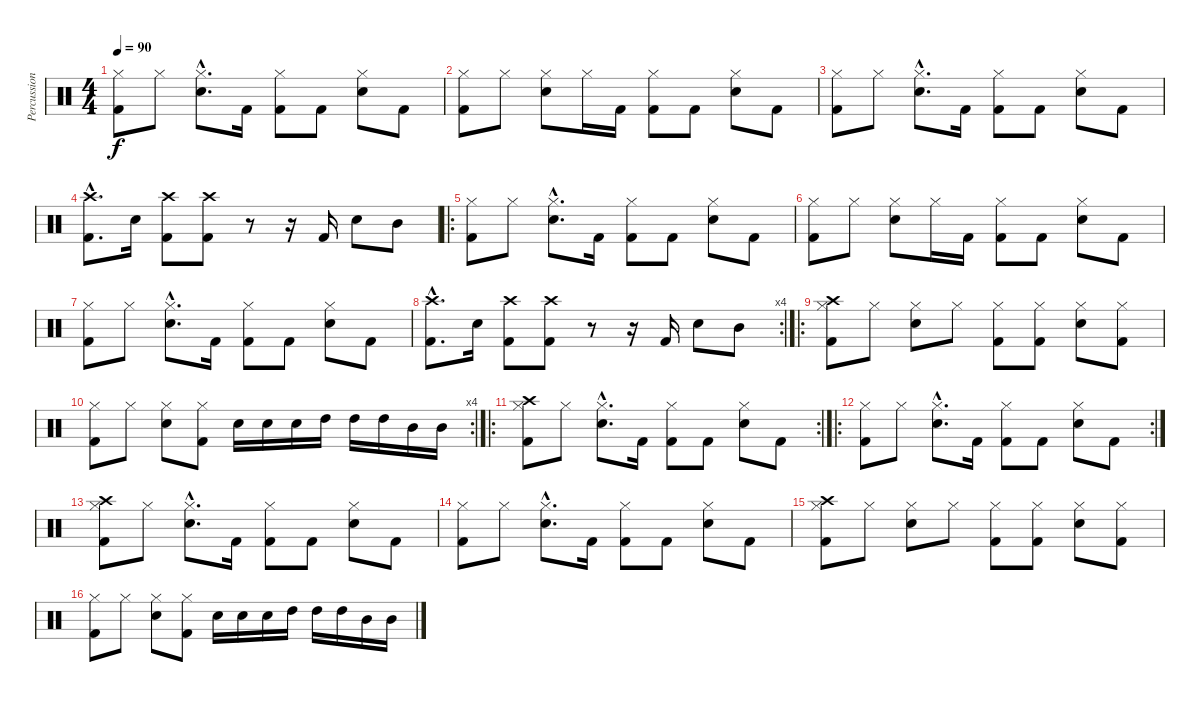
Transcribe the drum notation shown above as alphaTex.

\track ("Percussions" "Percussion") {instrument percussion}
\staff {score}
\articulation defaults
\ts (4 4)
\tempo 90
\clef neutral
\ks c
("Hi-Hat (closed)" "Kick (hit) 2").8{dy f} "Hi-Hat (closed)".8 ("Hi-Hat (closed)"{hac} "Snare (hit) 2"{hac}).8{d} "Kick (hit) 2".16 ("Hi-Hat (closed)" "Kick (hit) 2").8 "Kick (hit) 2".8 ("Hi-Hat (closed)" "Snare (hit) 2").8 "Kick (hit) 2".8 |
("Hi-Hat (closed)" "Kick (hit) 2").8 "Hi-Hat (closed)".8 ("Hi-Hat (closed)" "Snare (hit) 2").8 "Hi-Hat (closed)".16 "Kick (hit) 2".16 ("Hi-Hat (closed)" "Kick (hit) 2").8 "Kick (hit) 2".8 ("Hi-Hat (closed)" "Snare (hit) 2").8 "Kick (hit) 2".8 |
("Hi-Hat (closed)" "Kick (hit) 2").8 "Hi-Hat (closed)".8 ("Hi-Hat (closed)"{hac} "Snare (hit) 2"{hac}).8{d} "Kick (hit) 2".16 ("Hi-Hat (closed)" "Kick (hit) 2").8 "Kick (hit) 2".8 ("Hi-Hat (closed)" "Snare (hit) 2").8 "Kick (hit) 2".8 |
("Crash high (hit)"{hac} "Kick (hit) 2"{hac}).8{d} "Snare (hit) 2".16 ("Crash high (hit)" "Kick (hit) 2").8 ("Crash high (hit)" "Kick (hit) 2").8 r.8 r.16 "Kick (hit) 2".16 "Snare (hit) 2".8 "Mid Tom (hit)".8 |
\ro
("Hi-Hat (closed)" "Kick (hit) 2").8 "Hi-Hat (closed)".8 ("Hi-Hat (closed)"{hac} "Snare (hit) 2"{hac}).8{d} "Kick (hit) 2".16 ("Hi-Hat (closed)" "Kick (hit) 2").8 "Kick (hit) 2".8 ("Hi-Hat (closed)" "Snare (hit) 2").8 "Kick (hit) 2".8 |
("Hi-Hat (closed)" "Kick (hit) 2").8 "Hi-Hat (closed)".8 ("Hi-Hat (closed)" "Snare (hit) 2").8 "Hi-Hat (closed)".16 "Kick (hit) 2".16 ("Hi-Hat (closed)" "Kick (hit) 2").8 "Kick (hit) 2".8 ("Hi-Hat (closed)" "Snare (hit) 2").8 "Kick (hit) 2".8 |
("Hi-Hat (closed)" "Kick (hit) 2").8 "Hi-Hat (closed)".8 ("Hi-Hat (closed)"{hac} "Snare (hit) 2"{hac}).8{d} "Kick (hit) 2".16 ("Hi-Hat (closed)" "Kick (hit) 2").8 "Kick (hit) 2".8 ("Hi-Hat (closed)" "Snare (hit) 2").8 "Kick (hit) 2".8 |
\rc 4
("Crash high (hit)"{hac} "Kick (hit) 2"{hac}).8{d} "Snare (hit) 2".16 ("Crash high (hit)" "Kick (hit) 2").8 ("Crash high (hit)" "Kick (hit) 2").8 r.8 r.16 "Kick (hit) 2".16 "Snare (hit) 2".8 "Mid Tom (hit)".8 |
\ro
("Crash high (hit)" "Hi-Hat (closed)" "Kick (hit) 2").8 "Hi-Hat (closed)".8 ("Hi-Hat (closed)" "Snare (hit) 2").8 "Hi-Hat (closed)".8 ("Hi-Hat (closed)" "Kick (hit) 2").8 ("Hi-Hat (closed)" "Kick (hit) 2").8 ("Hi-Hat (closed)" "Snare (hit) 2").8 ("Hi-Hat (closed)" "Kick (hit) 2").8 |
\rc 4
("Hi-Hat (closed)" "Kick (hit) 2").8 "Hi-Hat (closed)".8 ("Hi-Hat (closed)" "Snare (hit) 2").8 ("Hi-Hat (closed)" "Kick (hit) 2").8 "Snare (hit) 2".16 "Snare (hit) 2".16 "Snare (hit) 2".16 "High Tom (hit)".16 "High Tom (hit)".16 "High Tom (hit)".16 "Mid Tom (hit)".16 "Mid Tom (hit)".16 |
\ro
\rc 2
("Crash high (hit)" "Hi-Hat (closed)" "Kick (hit) 2").8 "Hi-Hat (closed)".8 ("Hi-Hat (closed)"{hac} "Snare (hit) 2"{hac}).8{d} "Kick (hit) 2".16 ("Hi-Hat (closed)" "Kick (hit) 2").8 "Kick (hit) 2".8 ("Hi-Hat (closed)" "Snare (hit) 2").8 "Kick (hit) 2".8 |
\ro
\rc 2
("Hi-Hat (closed)" "Kick (hit) 2").8 "Hi-Hat (closed)".8 ("Hi-Hat (closed)"{hac} "Snare (hit) 2"{hac}).8{d} "Kick (hit) 2".16 ("Hi-Hat (closed)" "Kick (hit) 2").8 "Kick (hit) 2".8 ("Hi-Hat (closed)" "Snare (hit) 2").8 "Kick (hit) 2".8 |
("Crash high (hit)" "Hi-Hat (closed)" "Kick (hit) 2").8 "Hi-Hat (closed)".8 ("Hi-Hat (closed)"{hac} "Snare (hit) 2"{hac}).8{d} "Kick (hit) 2".16 ("Hi-Hat (closed)" "Kick (hit) 2").8 "Kick (hit) 2".8 ("Hi-Hat (closed)" "Snare (hit) 2").8 "Kick (hit) 2".8 |
("Hi-Hat (closed)" "Kick (hit) 2").8 "Hi-Hat (closed)".8 ("Hi-Hat (closed)"{hac} "Snare (hit) 2"{hac}).8{d} "Kick (hit) 2".16 ("Hi-Hat (closed)" "Kick (hit) 2").8 "Kick (hit) 2".8 ("Hi-Hat (closed)" "Snare (hit) 2").8 "Kick (hit) 2".8 |
("Crash high (hit)" "Hi-Hat (closed)" "Kick (hit) 2").8 "Hi-Hat (closed)".8 ("Hi-Hat (closed)" "Snare (hit) 2").8 "Hi-Hat (closed)".8 ("Hi-Hat (closed)" "Kick (hit) 2").8 ("Hi-Hat (closed)" "Kick (hit) 2").8 ("Hi-Hat (closed)" "Snare (hit) 2").8 ("Hi-Hat (closed)" "Kick (hit) 2").8 |
("Hi-Hat (closed)" "Kick (hit) 2").8 "Hi-Hat (closed)".8 ("Hi-Hat (closed)" "Snare (hit) 2").8 ("Hi-Hat (closed)" "Kick (hit) 2").8 "Snare (hit) 2".16 "Snare (hit) 2".16 "Snare (hit) 2".16 "High Tom (hit)".16 "High Tom (hit)".16 "High Tom (hit)".16 "Mid Tom (hit)".16 "Mid Tom (hit)".16
